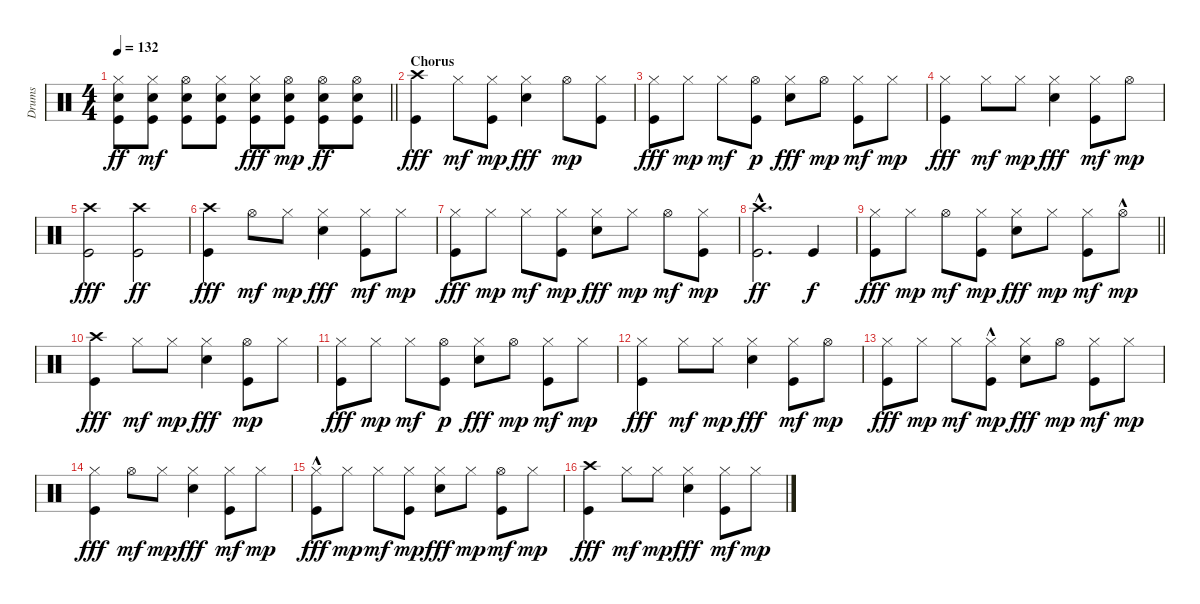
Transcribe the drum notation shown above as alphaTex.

\track ("Drums" "Drums") {instrument percussion}
\staff {score}
\articulation defaults
\ts (4 4)
\tempo 132
\clef neutral
\barLineRight lightlight
\ks c
("Hi-Hat (closed)" "Snare (hit) 2" "Kick (hit)").8{dy ff} ("Hi-Hat (closed)" "Snare (hit) 2" "Kick (hit)").8{dy mf} ("Hi-Hat (open)" "Snare (hit) 2" "Kick (hit)").8 ("Hi-Hat (closed)" "Snare (hit) 2" "Kick (hit)").8 ("Hi-Hat (closed)" "Snare (hit) 2" "Kick (hit)").8{dy fff} ("Hi-Hat (open)" "Snare (hit) 2" "Kick (hit)").8{dy mp} ("Hi-Hat (open)" "Snare (hit) 2" "Kick (hit)").8{dy ff} ("Hi-Hat (open)" "Snare (hit) 2" "Kick (hit)").8 |
\section ("" "Chorus")
("Crash high (hit)" "Kick (hit)").4{dy fff} "Hi-Hat (closed)".8{dy mf} ("Hi-Hat (closed)" "Kick (hit)").8{dy mp} ("Hi-Hat (closed)" "Snare (hit) 2").4{dy fff} "Hi-Hat (open)".8{dy mp} ("Hi-Hat (closed)" "Kick (hit)").8 |
("Hi-Hat (closed)" "Kick (hit)").8{dy fff} "Hi-Hat (closed)".8{dy mp} "Hi-Hat (closed)".8{dy mf} ("Hi-Hat (open)" "Kick (hit)").8{dy p} ("Hi-Hat (closed)" "Snare (hit) 2").8{dy fff} "Hi-Hat (open)".8{dy mp} ("Hi-Hat (closed)" "Kick (hit)").8{dy mf} "Hi-Hat (closed)".8{dy mp} |
("Hi-Hat (closed)" "Kick (hit)").4{dy fff} "Hi-Hat (closed)".8{dy mf} "Hi-Hat (closed)".8{dy mp} ("Hi-Hat (closed)" "Snare (hit) 2").4{dy fff} ("Hi-Hat (closed)" "Kick (hit)").8{dy mf} "Hi-Hat (open)".8{dy mp} |
("Crash high (hit)" "Kick (hit)").2{dy fff} ("Crash high (hit)" "Kick (hit)").2{dy ff} |
("Crash high (hit)" "Kick (hit)").4{dy fff} "Hi-Hat (open)".8{dy mf} "Hi-Hat (closed)".8{dy mp} ("Hi-Hat (closed)" "Snare (hit) 2").4{dy fff} ("Hi-Hat (closed)" "Kick (hit)").8{dy mf} "Hi-Hat (closed)".8{dy mp} |
("Hi-Hat (closed)" "Kick (hit)").8{dy fff} "Hi-Hat (closed)".8{dy mp} "Hi-Hat (closed)".8{dy mf} ("Hi-Hat (closed)" "Kick (hit)").8{dy mp} ("Hi-Hat (closed)" "Snare (hit) 2").8{dy fff} "Hi-Hat (closed)".8{dy mp} "Hi-Hat (open)".8{dy mf} ("Hi-Hat (closed)" "Kick (hit)").8{dy mp} |
("Kick (hit)"{hac} "Crash high (hit)").2{d dy ff} "Kick (hit)".4{dy f} |
\barLineRight lightlight
("Hi-Hat (closed)" "Kick (hit)").8{dy fff} "Hi-Hat (closed)".8{dy mp} "Hi-Hat (open)".8{dy mf} ("Hi-Hat (closed)" "Kick (hit)").8{dy mp} ("Hi-Hat (closed)" "Snare (hit) 2").8{dy fff} "Hi-Hat (closed)".8{dy mp} ("Hi-Hat (closed)" "Kick (hit)").8{dy mf} "Hi-Hat (open)"{hac}.8{dy mp} |
("Crash high (hit)" "Kick (hit)").4{dy fff} "Hi-Hat (closed)".8{dy mf} "Hi-Hat (closed)".8{dy mp} ("Hi-Hat (closed)" "Snare (hit) 2").4{dy fff} ("Hi-Hat (open)" "Kick (hit)").8{dy mp} "Hi-Hat (closed)".8 |
("Hi-Hat (closed)" "Kick (hit)").8{dy fff} "Hi-Hat (closed)".8{dy mp} "Hi-Hat (closed)".8{dy mf} ("Hi-Hat (open)" "Kick (hit)").8{dy p} ("Hi-Hat (closed)" "Snare (hit) 2").8{dy fff} "Hi-Hat (open)".8{dy mp} ("Hi-Hat (closed)" "Kick (hit)").8{dy mf} "Hi-Hat (closed)".8{dy mp} |
("Hi-Hat (closed)" "Kick (hit)").4{dy fff} "Hi-Hat (closed)".8{dy mf} "Hi-Hat (closed)".8{dy mp} ("Hi-Hat (closed)" "Snare (hit) 2").4{dy fff} ("Hi-Hat (closed)" "Kick (hit)").8{dy mf} "Hi-Hat (open)".8{dy mp} |
("Hi-Hat (closed)" "Kick (hit)").8{dy fff} "Hi-Hat (closed)".8{dy mp} "Hi-Hat (closed)".8{dy mf} ("Hi-Hat (closed)" "Kick (hit)"{hac}).8{dy mp} ("Hi-Hat (closed)" "Snare (hit) 2").8{dy fff} "Hi-Hat (open)".8{dy mp} ("Hi-Hat (closed)" "Kick (hit)").8{dy mf} "Hi-Hat (closed)".8{dy mp} |
("Hi-Hat (closed)" "Kick (hit)").4{dy fff} "Hi-Hat (open)".8{dy mf} "Hi-Hat (closed)".8{dy mp} ("Hi-Hat (closed)" "Snare (hit) 2").4{dy fff} ("Hi-Hat (closed)" "Kick (hit)").8{dy mf} "Hi-Hat (closed)".8{dy mp} |
("Hi-Hat (closed)" "Kick (hit)"{hac}).8{dy fff} "Hi-Hat (closed)".8{dy mp} "Hi-Hat (closed)".8{dy mf} ("Hi-Hat (closed)" "Kick (hit)").8{dy mp} ("Hi-Hat (closed)" "Snare (hit) 2").8{dy fff} "Hi-Hat (closed)".8{dy mp} ("Hi-Hat (open)" "Kick (hit)").8{dy mf} "Hi-Hat (closed)".8{dy mp} |
("Crash high (hit)" "Kick (hit)").4{dy fff} "Hi-Hat (closed)".8{dy mf} "Hi-Hat (closed)".8{dy mp} ("Hi-Hat (closed)" "Snare (hit) 2").4{dy fff} ("Hi-Hat (closed)" "Kick (hit)").8{dy mf} "Hi-Hat (closed)".8{dy mp}
